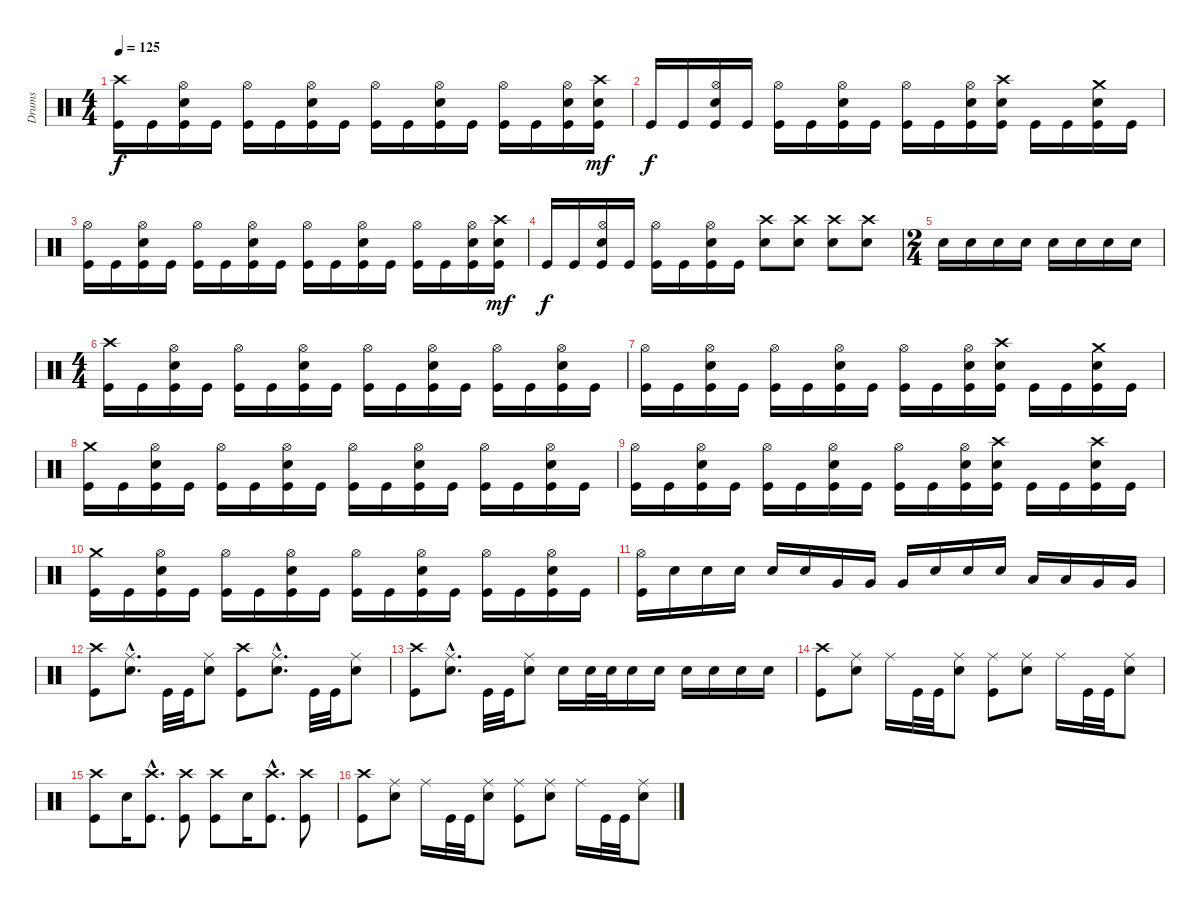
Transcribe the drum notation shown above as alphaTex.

\track ("Drums" "Drums") {instrument percussion}
\staff {score}
\articulation defaults
\ts (4 4)
\tempo 125
\clef neutral
\ks c
("Crash high (hit)" "Kick (hit)").16{dy f} "Kick (hit)".16 ("Hi-Hat (open)" "Snare (hit) 2" "Kick (hit)").16 "Kick (hit)".16 ("Hi-Hat (open)" "Kick (hit)").16 "Kick (hit)".16 ("Hi-Hat (open)" "Snare (hit) 2" "Kick (hit)").16 "Kick (hit)".16 ("Hi-Hat (open)" "Kick (hit)").16 "Kick (hit)".16 ("Hi-Hat (open)" "Snare (hit) 2" "Kick (hit)").16 "Kick (hit)".16 ("Hi-Hat (open)" "Kick (hit)").16 "Kick (hit)".16 ("Hi-Hat (open)" "Snare (hit) 2" "Kick (hit)").16 ("Crash high (hit)" "Snare (hit) 2" "Kick (hit)").16{dy mf} |
"Kick (hit)".16{dy f} "Kick (hit)".16 ("Hi-Hat (open)" "Snare (hit) 2" "Kick (hit)").16 "Kick (hit)".16 ("Hi-Hat (open)" "Kick (hit)").16 "Kick (hit)".16 ("Hi-Hat (open)" "Snare (hit) 2" "Kick (hit)").16 "Kick (hit)".16 ("Hi-Hat (open)" "Kick (hit)").16 "Kick (hit)".16 ("Hi-Hat (open)" "Snare (hit) 2" "Kick (hit)").16 ("Crash high (hit)" "Snare (hit) 2" "Kick (hit)").16 "Kick (hit)".16 "Kick (hit)".16 ("Crash medium (hit)" "Snare (hit) 2" "Kick (hit)").16 "Kick (hit)".16 |
("Hi-Hat (open)" "Kick (hit)").16 "Kick (hit)".16 ("Hi-Hat (open)" "Snare (hit) 2" "Kick (hit)").16 "Kick (hit)".16 ("Hi-Hat (open)" "Kick (hit)").16 "Kick (hit)".16 ("Hi-Hat (open)" "Snare (hit) 2" "Kick (hit)").16 "Kick (hit)".16 ("Hi-Hat (open)" "Kick (hit)").16 "Kick (hit)".16 ("Hi-Hat (open)" "Snare (hit) 2" "Kick (hit)").16 "Kick (hit)".16 ("Hi-Hat (open)" "Kick (hit)").16 "Kick (hit)".16 ("Hi-Hat (open)" "Snare (hit) 2" "Kick (hit)").16 ("Crash high (hit)" "Snare (hit) 2" "Kick (hit)").16{dy mf} |
"Kick (hit)".16{dy f} "Kick (hit)".16 ("Hi-Hat (open)" "Snare (hit) 2" "Kick (hit)").16 "Kick (hit)".16 ("Hi-Hat (open)" "Kick (hit)").16 "Kick (hit)".16 ("Hi-Hat (open)" "Snare (hit) 2" "Kick (hit)").16 "Kick (hit)".16 ("Crash high (hit)" "Snare (hit) 2").8 ("Crash high (hit)" "Snare (hit) 2").8 ("Crash high (hit)" "Snare (hit) 2").8 ("Crash high (hit)" "Snare (hit) 2").8 |
\ts (2 4)
"Snare (hit) 2".16 "Snare (hit) 2".16 "Snare (hit) 2".16 "Snare (hit) 2".16 "Snare (hit) 2".16 "Snare (hit) 2".16 "Snare (hit) 2".16 "Snare (hit) 2".16 |
\ts (4 4)
("Crash high (hit)" "Kick (hit)").16 "Kick (hit)".16 ("Hi-Hat (open)" "Snare (hit) 2" "Kick (hit)").16 "Kick (hit)".16 ("Hi-Hat (open)" "Kick (hit)").16 "Kick (hit)".16 ("Hi-Hat (open)" "Snare (hit) 2" "Kick (hit)").16 "Kick (hit)".16 ("Hi-Hat (open)" "Kick (hit)").16 "Kick (hit)".16 ("Hi-Hat (open)" "Snare (hit) 2" "Kick (hit)").16 "Kick (hit)".16 ("Hi-Hat (open)" "Kick (hit)").16 "Kick (hit)".16 ("Hi-Hat (open)" "Snare (hit) 2" "Kick (hit)").16 "Kick (hit)".16 |
("Hi-Hat (open)" "Kick (hit)").16 "Kick (hit)".16 ("Hi-Hat (open)" "Snare (hit) 2" "Kick (hit)").16 "Kick (hit)".16 ("Hi-Hat (open)" "Kick (hit)").16 "Kick (hit)".16 ("Hi-Hat (open)" "Snare (hit) 2" "Kick (hit)").16 "Kick (hit)".16 ("Hi-Hat (open)" "Kick (hit)").16 "Kick (hit)".16 ("Hi-Hat (open)" "Snare (hit) 2" "Kick (hit)").16 ("Crash high (hit)" "Snare (hit) 2" "Kick (hit)").16 "Kick (hit)".16 "Kick (hit)".16 ("Crash medium (hit)" "Snare (hit) 2" "Kick (hit)").16 "Kick (hit)".16 |
("Crash medium (hit)" "Kick (hit)").16 "Kick (hit)".16 ("Hi-Hat (open)" "Snare (hit) 2" "Kick (hit)").16 "Kick (hit)".16 ("Hi-Hat (open)" "Kick (hit)").16 "Kick (hit)".16 ("Hi-Hat (open)" "Snare (hit) 2" "Kick (hit)").16 "Kick (hit)".16 ("Hi-Hat (open)" "Kick (hit)").16 "Kick (hit)".16 ("Hi-Hat (open)" "Snare (hit) 2" "Kick (hit)").16 "Kick (hit)".16 ("Hi-Hat (open)" "Kick (hit)").16 "Kick (hit)".16 ("Hi-Hat (open)" "Snare (hit) 2" "Kick (hit)").16 "Kick (hit)".16 |
("Hi-Hat (open)" "Kick (hit)").16 "Kick (hit)".16 ("Hi-Hat (open)" "Snare (hit) 2" "Kick (hit)").16 "Kick (hit)".16 ("Hi-Hat (open)" "Kick (hit)").16 "Kick (hit)".16 ("Hi-Hat (open)" "Snare (hit) 2" "Kick (hit)").16 "Kick (hit)".16 ("Hi-Hat (open)" "Kick (hit)").16 "Kick (hit)".16 ("Hi-Hat (open)" "Snare (hit) 2" "Kick (hit)").16 ("Crash high (hit)" "Snare (hit) 2" "Kick (hit)").16 "Kick (hit)".16 "Kick (hit)".16 ("Crash high (hit)" "Snare (hit) 2" "Kick (hit)").16 "Kick (hit)".16 |
("Crash medium (hit)" "Kick (hit)").16 "Kick (hit)".16 ("Hi-Hat (open)" "Snare (hit) 2" "Kick (hit)").16 "Kick (hit)".16 ("Hi-Hat (open)" "Kick (hit)").16 "Kick (hit)".16 ("Hi-Hat (open)" "Snare (hit) 2" "Kick (hit)").16 "Kick (hit)".16 ("Hi-Hat (open)" "Kick (hit)").16 "Kick (hit)".16 ("Hi-Hat (open)" "Snare (hit) 2" "Kick (hit)").16 "Kick (hit)".16 ("Hi-Hat (open)" "Kick (hit)").16 "Kick (hit)".16 ("Hi-Hat (open)" "Snare (hit) 2" "Kick (hit)").16 "Kick (hit)".16 |
("Hi-Hat (open)" "Kick (hit)").16 "Snare (hit) 2".16 "Snare (hit) 2".16 "Snare (hit) 2".16 "Snare (hit) 2".16 "Snare (hit) 2".16 "Very Low Tom (hit)".16 "Very Low Tom (hit)".16 "Very Low Tom (hit)".16 "Snare (hit) 2".16 "Snare (hit) 2".16 "Snare (hit) 2".16 "Low Tom (hit)".16 "Low Tom (hit)".16 "Very Low Tom (hit)".16 "Very Low Tom (hit)".16 |
("Crash high (hit)" "Kick (hit)").8 ("Ride (middle)"{hac} "Snare (hit) 2"{hac}).8{d} "Kick (hit)".32 "Kick (hit)".32 ("Ride (middle)" "Snare (hit) 2").8 ("Crash high (hit)" "Kick (hit)").8 ("Ride (middle)"{hac} "Snare (hit) 2"{hac}).8{d} "Kick (hit)".32 "Kick (hit)".32 ("Ride (middle)" "Snare (hit) 2").8 |
("Crash high (hit)" "Kick (hit)").8 ("Ride (middle)"{hac} "Snare (hit) 2"{hac}).8{d} "Kick (hit)".32 "Kick (hit)".32 ("Ride (middle)" "Snare (hit) 2").8 "Snare (hit) 2".16 "Snare (hit) 2".32 "Snare (hit) 2".32 "Snare (hit) 2".16 "Snare (hit) 2".16 "Snare (hit) 2".16 "Snare (hit) 2".16 "Snare (hit) 2".16 "Snare (hit) 2".16 |
("Crash high (hit)" "Kick (hit)").8 ("Ride (middle)" "Snare (hit) 2").8 "Ride (middle)".16 "Kick (hit)".32 "Kick (hit)".32 ("Ride (middle)" "Snare (hit) 2").8 ("Ride (middle)" "Kick (hit)").8 ("Ride (middle)" "Snare (hit) 2").8 "Ride (middle)".16 "Kick (hit)".32 "Kick (hit)".32 ("Ride (middle)" "Snare (hit) 2").8 |
("Crash high (hit)" "Kick (hit)").8 "Snare (hit) 2".16 ("Crash high (hit)"{hac} "Kick (hit)"{hac}).8{d} ("Crash high (hit)" "Kick (hit)").8 ("Crash high (hit)" "Kick (hit)").8 "Snare (hit) 2".16 ("Crash high (hit)"{hac} "Kick (hit)"{hac}).8{d} ("Crash high (hit)" "Kick (hit)").8 |
("Crash high (hit)" "Kick (hit)").8 ("Ride (middle)" "Snare (hit) 2").8 "Ride (middle)".16 "Kick (hit)".32 "Kick (hit)".32 ("Ride (middle)" "Snare (hit) 2").8 ("Ride (middle)" "Kick (hit)").8 ("Ride (middle)" "Snare (hit) 2").8 "Ride (middle)".16 "Kick (hit)".32 "Kick (hit)".32 ("Ride (middle)" "Snare (hit) 2").8
